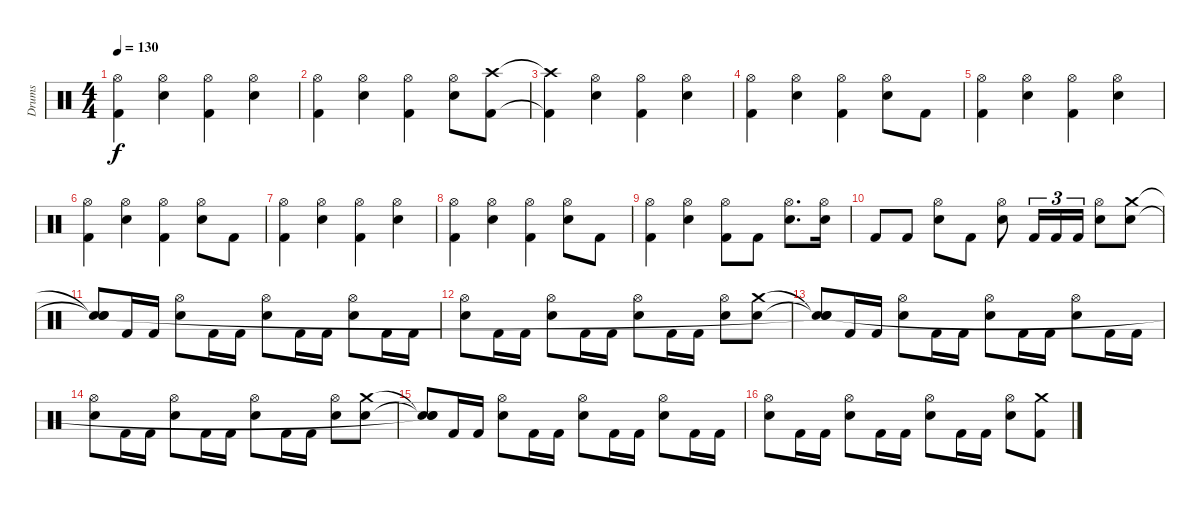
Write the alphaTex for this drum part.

\track ("Drums" "Drums") {instrument percussion}
\staff {score}
\articulation defaults
\ts (4 4)
\tempo 130
\clef neutral
\ks c
("Hi-Hat (open)" "Kick (hit) 2").4{dy f} ("Hi-Hat (open)" "Snare (hit) 2").4 ("Hi-Hat (open)" "Kick (hit) 2").4 ("Hi-Hat (open)" "Snare (hit) 2").4 |
("Hi-Hat (open)" "Kick (hit) 2").4 ("Hi-Hat (open)" "Snare (hit) 2").4 ("Hi-Hat (open)" "Kick (hit) 2").4 ("Hi-Hat (open)" "Snare (hit) 2").8 ("Crash high (hit)" "Kick (hit) 2").8 |
("Crash high (hit)"{t} "Kick (hit) 2"{t}).4 ("Hi-Hat (open)" "Snare (hit) 2").4 ("Hi-Hat (open)" "Kick (hit) 2").4 ("Hi-Hat (open)" "Snare (hit) 2").4 |
("Hi-Hat (open)" "Kick (hit) 2").4 ("Hi-Hat (open)" "Snare (hit) 2").4 ("Hi-Hat (open)" "Kick (hit) 2").4 ("Hi-Hat (open)" "Snare (hit) 2").8 "Kick (hit) 2".8 |
("Hi-Hat (open)" "Kick (hit) 2").4 ("Hi-Hat (open)" "Snare (hit) 2").4 ("Hi-Hat (open)" "Kick (hit) 2").4 ("Hi-Hat (open)" "Snare (hit) 2").4 |
("Hi-Hat (open)" "Kick (hit) 2").4 ("Hi-Hat (open)" "Snare (hit) 2").4 ("Hi-Hat (open)" "Kick (hit) 2").4 ("Hi-Hat (open)" "Snare (hit) 2").8 "Kick (hit) 2".8 |
("Hi-Hat (open)" "Kick (hit) 2").4 ("Hi-Hat (open)" "Snare (hit) 2").4 ("Hi-Hat (open)" "Kick (hit) 2").4 ("Hi-Hat (open)" "Snare (hit) 2").4 |
("Hi-Hat (open)" "Kick (hit) 2").4 ("Hi-Hat (open)" "Snare (hit) 2").4 ("Hi-Hat (open)" "Kick (hit) 2").4 ("Hi-Hat (open)" "Snare (hit) 2").8 "Kick (hit) 2".8 |
("Hi-Hat (open)" "Kick (hit) 2").4 ("Hi-Hat (open)" "Snare (hit) 2").4 ("Hi-Hat (open)" "Kick (hit) 2").8 "Kick (hit) 2".8 ("Hi-Hat (open)" "Snare (hit) 2").8{d} ("Hi-Hat (open)" "Snare (hit) 2").16 |
"Kick (hit) 2".8 "Kick (hit) 2".8 ("Hi-Hat (open)" "Snare (hit) 2").8 "Kick (hit) 2".8 ("Hi-Hat (open)" "Snare (hit) 2").8 "Kick (hit) 2".16{tu (3 2)} "Kick (hit) 2".16{tu (3 2)} "Kick (hit) 2".16{tu (3 2)} ("Hi-Hat (open)" "Snare (hit) 2").8 ("Crash medium (hit)" "Snare (hit) 2").8 |
("Snare (hit)"{t} "Snare (hit)"{t} "Snare (hit)").8 "Kick (hit) 2".16 "Kick (hit) 2".16 ("Hi-Hat (open)" "Snare (hit) 2").8 "Kick (hit) 2".16 "Kick (hit) 2".16 ("Hi-Hat (open)" "Snare (hit) 2").8 "Kick (hit) 2".16 "Kick (hit) 2".16 ("Hi-Hat (open)" "Snare (hit) 2").8 "Kick (hit) 2".16 "Kick (hit) 2".16 |
("Hi-Hat (open)" "Snare (hit) 2").8 "Kick (hit) 2".16 "Kick (hit) 2".16 ("Hi-Hat (open)" "Snare (hit) 2").8 "Kick (hit) 2".16 "Kick (hit) 2".16 ("Hi-Hat (open)" "Snare (hit) 2").8 "Kick (hit) 2".16 "Kick (hit) 2".16 ("Hi-Hat (open)" "Snare (hit) 2").8 ("Crash medium (hit)" "Snare (hit) 2").8 |
("Snare (hit)"{t} "Snare (hit)"{t} "Snare (hit)"{t}).8 "Kick (hit) 2".16 "Kick (hit) 2".16 ("Hi-Hat (open)" "Snare (hit) 2").8 "Kick (hit) 2".16 "Kick (hit) 2".16 ("Hi-Hat (open)" "Snare (hit) 2").8 "Kick (hit) 2".16 "Kick (hit) 2".16 ("Hi-Hat (open)" "Snare (hit) 2").8 "Kick (hit) 2".16 "Kick (hit) 2".16 |
("Hi-Hat (open)" "Snare (hit) 2").8 "Kick (hit) 2".16 "Kick (hit) 2".16 ("Hi-Hat (open)" "Snare (hit) 2").8 "Kick (hit) 2".16 "Kick (hit) 2".16 ("Hi-Hat (open)" "Snare (hit) 2").8 "Kick (hit) 2".16 "Kick (hit) 2".16 ("Hi-Hat (open)" "Snare (hit) 2").8 ("Crash medium (hit)" "Snare (hit) 2").8 |
("Snare (hit)"{t} "Snare (hit)"{t} "Snare (hit)"{t}).8 "Kick (hit) 2".16 "Kick (hit) 2".16 ("Hi-Hat (open)" "Snare (hit) 2").8 "Kick (hit) 2".16 "Kick (hit) 2".16 ("Hi-Hat (open)" "Snare (hit) 2").8 "Kick (hit) 2".16 "Kick (hit) 2".16 ("Hi-Hat (open)" "Snare (hit) 2").8 "Kick (hit) 2".16 "Kick (hit) 2".16 |
("Hi-Hat (open)" "Snare (hit) 2").8 "Kick (hit) 2".16 "Kick (hit) 2".16 ("Hi-Hat (open)" "Snare (hit) 2").8 "Kick (hit) 2".16 "Kick (hit) 2".16 ("Hi-Hat (open)" "Snare (hit) 2").8 "Kick (hit) 2".16 "Kick (hit) 2".16 ("Hi-Hat (open)" "Snare (hit) 2").8 ("Crash medium (hit)" "Kick (hit) 2").8
